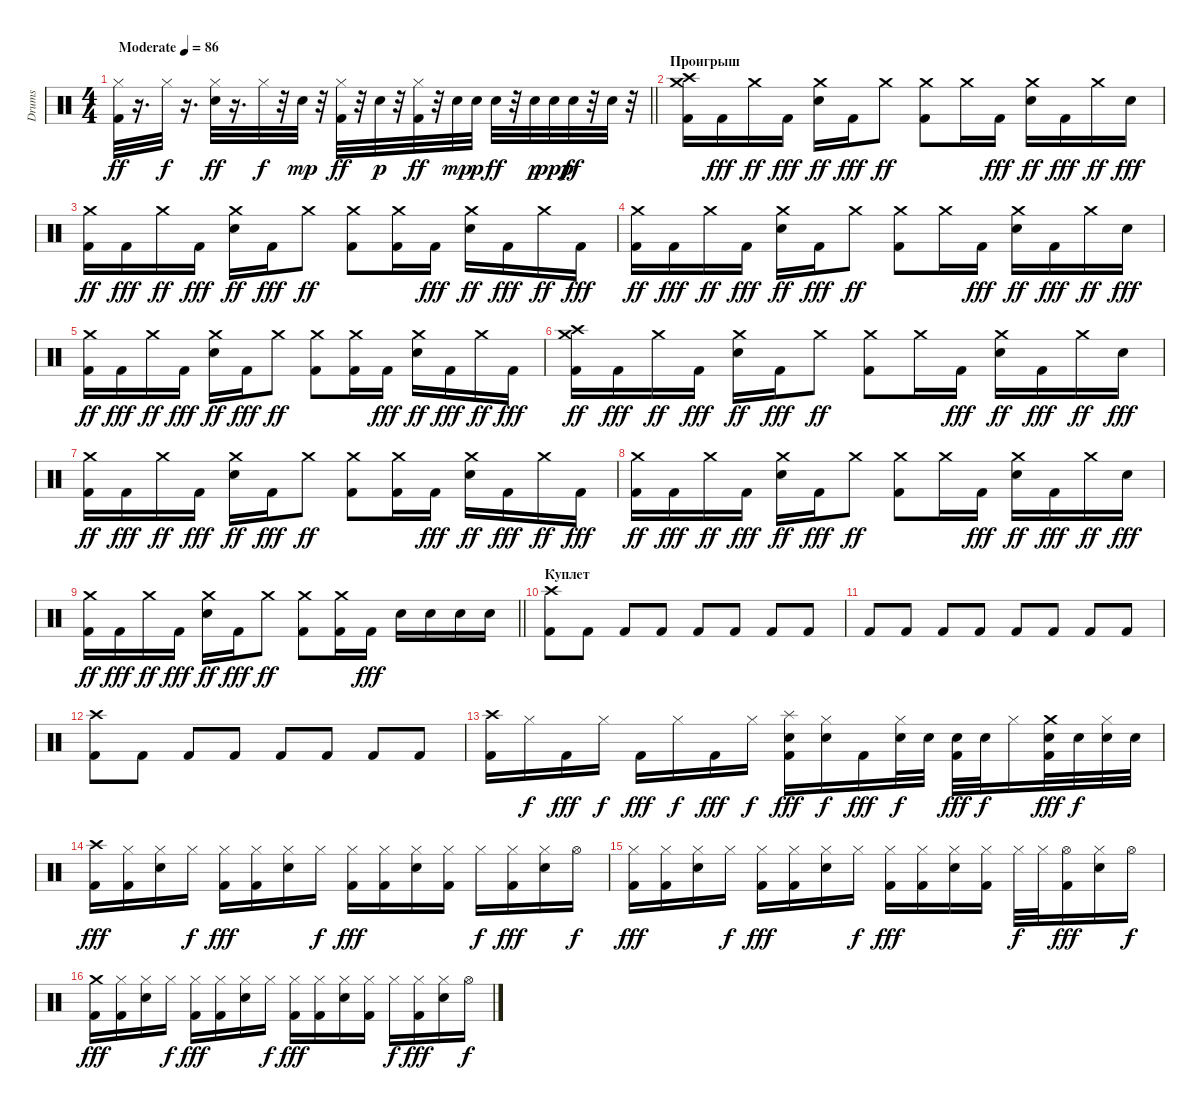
\track ("Drums" "Drums") {instrument percussion}
\staff {score}
\articulation defaults
\ts (4 4)
\tempo (86 "Moderate")
\clef neutral
\barLineRight lightlight
\ks c
("Kick (hit) 2" "Hi-Hat (closed)").32{dy ff} r.16{d} "Hi-Hat (closed)".32{dy f} r.16{d} ("Electric Snare (hit)" "Hi-Hat (closed)").32{dy ff} r.16{d} "Hi-Hat (closed)".32{dy f} r.32 "Electric Snare (hit)".32{dy mp} r.32 ("Kick (hit) 2" "Hi-Hat (closed)").32{dy ff} r.32 "Electric Snare (hit)".32{dy p} r.32 ("Kick (hit) 2" "Hi-Hat (closed)").32{dy ff} r.32 "Electric Snare (hit)".32{dy mp} "Electric Snare (hit)".32{dy p} "Electric Snare (hit)".32{dy ff} r.32 "Electric Snare (hit)".32{dy p} "Electric Snare (hit)".32{dy ppp} "Electric Snare (hit)".32{dy ff} r.32 "Electric Snare (hit)".32 r.32 |
\section ("" "Проигрыш")
("Kick (hit) 2" "Crash high (hit)" "Crash medium (hit)").16 "Kick (hit) 2".16{dy fff} "Crash medium (hit)".16{dy ff} "Kick (hit) 2".16{dy fff} ("Electric Snare (hit)" "Crash medium (hit)").16{dy ff} "Kick (hit) 2".16{dy fff} "Crash medium (hit)".8{dy ff} ("Kick (hit) 2" "Crash medium (hit)").8 "Crash medium (hit)".16 "Kick (hit) 2".16{dy fff} ("Electric Snare (hit)" "Crash medium (hit)").16{dy ff} "Kick (hit) 2".16{dy fff} "Crash medium (hit)".16{dy ff} "Electric Snare (hit)".16{dy fff} |
("Kick (hit) 2" "Crash medium (hit)").16{dy ff} "Kick (hit) 2".16{dy fff} "Crash medium (hit)".16{dy ff} "Kick (hit) 2".16{dy fff} ("Electric Snare (hit)" "Crash medium (hit)").16{dy ff} "Kick (hit) 2".16{dy fff} "Crash medium (hit)".8{dy ff} ("Kick (hit) 2" "Crash medium (hit)").8 ("Kick (hit) 2" "Crash medium (hit)").16 "Kick (hit) 2".16{dy fff} ("Electric Snare (hit)" "Crash medium (hit)").16{dy ff} "Kick (hit) 2".16{dy fff} "Crash medium (hit)".16{dy ff} "Kick (hit) 2".16{dy fff} |
("Kick (hit) 2" "Crash medium (hit)").16{dy ff} "Kick (hit) 2".16{dy fff} "Crash medium (hit)".16{dy ff} "Kick (hit) 2".16{dy fff} ("Electric Snare (hit)" "Crash medium (hit)").16{dy ff} "Kick (hit) 2".16{dy fff} "Crash medium (hit)".8{dy ff} ("Kick (hit) 2" "Crash medium (hit)").8 "Crash medium (hit)".16 "Kick (hit) 2".16{dy fff} ("Electric Snare (hit)" "Crash medium (hit)").16{dy ff} "Kick (hit) 2".16{dy fff} "Crash medium (hit)".16{dy ff} "Electric Snare (hit)".16{dy fff} |
("Kick (hit) 2" "Crash medium (hit)").16{dy ff} "Kick (hit) 2".16{dy fff} "Crash medium (hit)".16{dy ff} "Kick (hit) 2".16{dy fff} ("Electric Snare (hit)" "Crash medium (hit)").16{dy ff} "Kick (hit) 2".16{dy fff} "Crash medium (hit)".8{dy ff} ("Kick (hit) 2" "Crash medium (hit)").8 ("Kick (hit) 2" "Crash medium (hit)").16 "Kick (hit) 2".16{dy fff} ("Electric Snare (hit)" "Crash medium (hit)").16{dy ff} "Kick (hit) 2".16{dy fff} "Crash medium (hit)".16{dy ff} "Kick (hit) 2".16{dy fff} |
("Kick (hit) 2" "Crash high (hit)" "Crash medium (hit)").16{dy ff} "Kick (hit) 2".16{dy fff} "Crash medium (hit)".16{dy ff} "Kick (hit) 2".16{dy fff} ("Electric Snare (hit)" "Crash medium (hit)").16{dy ff} "Kick (hit) 2".16{dy fff} "Crash medium (hit)".8{dy ff} ("Kick (hit) 2" "Crash medium (hit)").8 "Crash medium (hit)".16 "Kick (hit) 2".16{dy fff} ("Electric Snare (hit)" "Crash medium (hit)").16{dy ff} "Kick (hit) 2".16{dy fff} "Crash medium (hit)".16{dy ff} "Electric Snare (hit)".16{dy fff} |
("Kick (hit) 2" "Crash medium (hit)").16{dy ff} "Kick (hit) 2".16{dy fff} "Crash medium (hit)".16{dy ff} "Kick (hit) 2".16{dy fff} ("Electric Snare (hit)" "Crash medium (hit)").16{dy ff} "Kick (hit) 2".16{dy fff} "Crash medium (hit)".8{dy ff} ("Kick (hit) 2" "Crash medium (hit)").8 ("Kick (hit) 2" "Crash medium (hit)").16 "Kick (hit) 2".16{dy fff} ("Electric Snare (hit)" "Crash medium (hit)").16{dy ff} "Kick (hit) 2".16{dy fff} "Crash medium (hit)".16{dy ff} "Kick (hit) 2".16{dy fff} |
("Kick (hit) 2" "Crash medium (hit)").16{dy ff} "Kick (hit) 2".16{dy fff} "Crash medium (hit)".16{dy ff} "Kick (hit) 2".16{dy fff} ("Electric Snare (hit)" "Crash medium (hit)").16{dy ff} "Kick (hit) 2".16{dy fff} "Crash medium (hit)".8{dy ff} ("Kick (hit) 2" "Crash medium (hit)").8 "Crash medium (hit)".16 "Kick (hit) 2".16{dy fff} ("Electric Snare (hit)" "Crash medium (hit)").16{dy ff} "Kick (hit) 2".16{dy fff} "Crash medium (hit)".16{dy ff} "Electric Snare (hit)".16{dy fff} |
\barLineRight lightlight
("Kick (hit) 2" "Crash medium (hit)").16{dy ff} "Kick (hit) 2".16{dy fff} "Crash medium (hit)".16{dy ff} "Kick (hit) 2".16{dy fff} ("Electric Snare (hit)" "Crash medium (hit)").16{dy ff} "Kick (hit) 2".16{dy fff} "Crash medium (hit)".8{dy ff} ("Kick (hit) 2" "Crash medium (hit)").8 ("Kick (hit) 2" "Crash medium (hit)").16 "Kick (hit) 2".16{dy fff} "Electric Snare (hit)".16 "Electric Snare (hit)".16 "Electric Snare (hit)".16 "Electric Snare (hit)".16 |
\section ("" "Куплет")
("Kick (hit) 2" "Crash high (hit)").8 "Kick (hit) 2".8 "Kick (hit) 2".8 "Kick (hit) 2".8 "Kick (hit) 2".8 "Kick (hit) 2".8 "Kick (hit) 2".8 "Kick (hit) 2".8 |
"Kick (hit) 2".8 "Kick (hit) 2".8 "Kick (hit) 2".8 "Kick (hit) 2".8 "Kick (hit) 2".8 "Kick (hit) 2".8 "Kick (hit) 2".8 "Kick (hit) 2".8 |
("Kick (hit) 2" "Crash high (hit)").8 "Kick (hit) 2".8 "Kick (hit) 2".8 "Kick (hit) 2".8 "Kick (hit) 2".8 "Kick (hit) 2".8 "Kick (hit) 2".8 "Kick (hit) 2".8 |
("Kick (hit) 2" "Crash high (hit)").16 "Hi-Hat (closed)".16{dy f} "Kick (hit) 2".16{dy fff} "Hi-Hat (closed)".16{dy f} "Kick (hit) 2".16{dy fff} "Hi-Hat (closed)".16{dy f} "Kick (hit) 2".16{dy fff} "Hi-Hat (closed)".16{dy f} ("Kick (hit) 2" "Electric Snare (hit)" "Splash (hit)").16{dy fff} ("Electric Snare (hit)" "Hi-Hat (closed)").16{dy f} "Kick (hit) 2".16{dy fff} ("Electric Snare (hit)" "Hi-Hat (closed)").32{dy f} "Electric Snare (hit)".32 ("Kick (hit) 2" "Electric Snare (hit)").32{dy fff} "Electric Snare (hit)".32{dy f} "Hi-Hat (closed)".16 ("Kick (hit) 2" "Electric Snare (hit)" "Crash medium (hit)").32{dy fff} "Electric Snare (hit)".32{dy f} ("Electric Snare (hit)" "Hi-Hat (closed)").32 "Electric Snare (hit)".32 |
("Kick (hit) 2" "Crash high (hit)").16{dy fff} ("Kick (hit) 2" "Hi-Hat (closed)").16 ("Electric Snare (hit)" "Hi-Hat (closed)").16 "Hi-Hat (closed)".16{dy f} ("Kick (hit) 2" "Hi-Hat (closed)").16{dy fff} ("Kick (hit) 2" "Hi-Hat (closed)").16 ("Electric Snare (hit)" "Hi-Hat (closed)").16 "Hi-Hat (closed)".16{dy f} ("Kick (hit) 2" "Hi-Hat (closed)").16{dy fff} ("Kick (hit) 2" "Hi-Hat (closed)").16 ("Electric Snare (hit)" "Hi-Hat (closed)").16 ("Kick (hit) 2" "Hi-Hat (closed)").16 "Hi-Hat (closed)".16{dy f} ("Kick (hit) 2" "Hi-Hat (closed)").16{dy fff} ("Electric Snare (hit)" "Hi-Hat (closed)").16 "Hi-Hat (open)".16{dy f} |
("Kick (hit) 2" "Hi-Hat (closed)").16{dy fff} ("Kick (hit) 2" "Hi-Hat (closed)").16 ("Electric Snare (hit)" "Hi-Hat (closed)").16 "Hi-Hat (closed)".16{dy f} ("Kick (hit) 2" "Hi-Hat (closed)").16{dy fff} ("Kick (hit) 2" "Hi-Hat (closed)").16 ("Electric Snare (hit)" "Hi-Hat (closed)").16 "Hi-Hat (closed)".16{dy f} ("Kick (hit) 2" "Hi-Hat (closed)").16{dy fff} ("Kick (hit) 2" "Hi-Hat (closed)").16 ("Electric Snare (hit)" "Hi-Hat (closed)").16 ("Kick (hit) 2" "Hi-Hat (closed)").16 "Hi-Hat (closed)".32{dy f} "Hi-Hat (closed)".32 ("Kick (hit) 2" "Hi-Hat (open)").16{dy fff} ("Electric Snare (hit)" "Hi-Hat (closed)").16 "Hi-Hat (open)".16{dy f} |
("Kick (hit) 2" "Crash medium (hit)").16{dy fff} ("Kick (hit) 2" "Hi-Hat (closed)").16 ("Electric Snare (hit)" "Hi-Hat (closed)").16 "Hi-Hat (closed)".16{dy f} ("Kick (hit) 2" "Hi-Hat (closed)").16{dy fff} ("Kick (hit) 2" "Hi-Hat (closed)").16 ("Electric Snare (hit)" "Hi-Hat (closed)").16 "Hi-Hat (closed)".16{dy f} ("Kick (hit) 2" "Hi-Hat (closed)").16{dy fff} ("Kick (hit) 2" "Hi-Hat (closed)").16 ("Electric Snare (hit)" "Hi-Hat (closed)").16 ("Kick (hit) 2" "Hi-Hat (closed)").16 "Hi-Hat (closed)".16{dy f} ("Kick (hit) 2" "Hi-Hat (closed)").16{dy fff} ("Electric Snare (hit)" "Hi-Hat (closed)").16 "Hi-Hat (open)".16{dy f}
